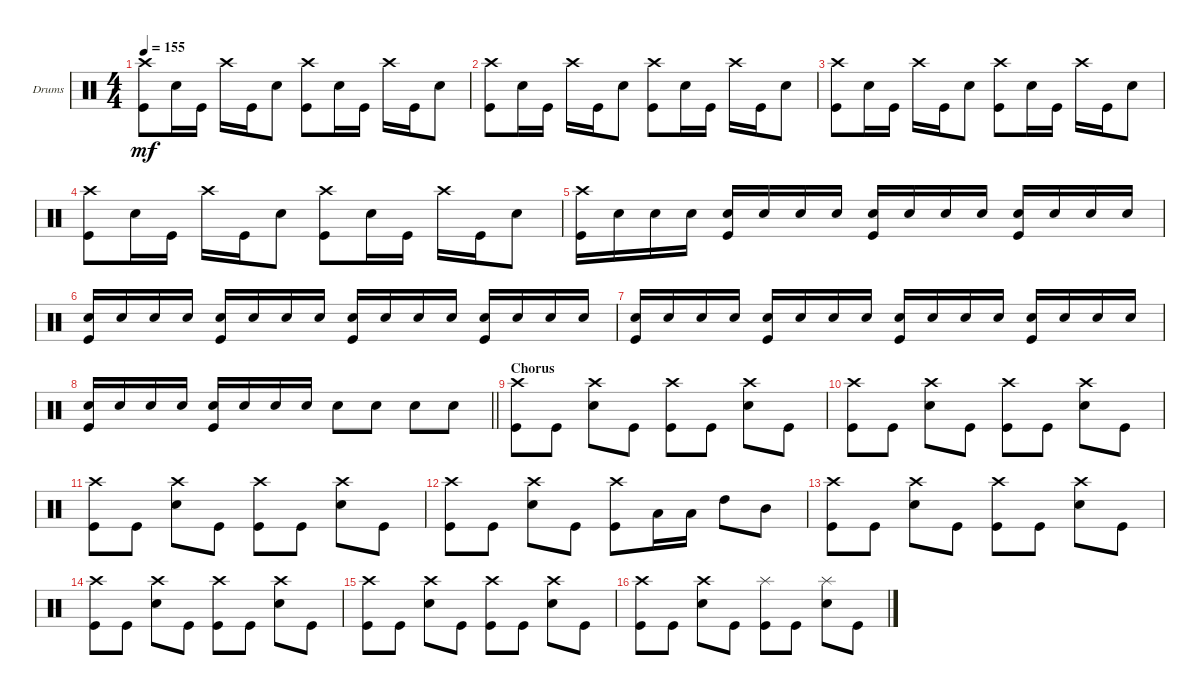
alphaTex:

\defaultSystemsLayout 4
\bracketExtendMode groupsimilarinstruments
\firstSystemTrackNameOrientation horizontal
\otherSystemsTrackNameOrientation horizontal
\track ("Drums" "Drums") {instrument percussion}
\staff {score}
\articulation defaults
\ts (4 4)
\tempo 155
\clef neutral
\ks c
("Kick (hit)" "Crash high (hit)").8{dy mf} "Snare (hit) 2".16 "Kick (hit)".16 "Crash high (hit)".16 "Kick (hit)".16 "Snare (hit) 2".8 ("Kick (hit)" "Crash high (hit)").8 "Snare (hit) 2".16 "Kick (hit)".16 "Crash high (hit)".16 "Kick (hit)".16 "Snare (hit) 2".8 |
("Kick (hit)" "Crash high (hit)").8 "Snare (hit) 2".16 "Kick (hit)".16 "Crash high (hit)".16 "Kick (hit)".16 "Snare (hit) 2".8 ("Kick (hit)" "Crash high (hit)").8 "Snare (hit) 2".16 "Kick (hit)".16 "Crash high (hit)".16 "Kick (hit)".16 "Snare (hit) 2".8 |
("Kick (hit)" "Crash high (hit)").8 "Snare (hit) 2".16 "Kick (hit)".16 "Crash high (hit)".16 "Kick (hit)".16 "Snare (hit) 2".8 ("Kick (hit)" "Crash high (hit)").8 "Snare (hit) 2".16 "Kick (hit)".16 "Crash high (hit)".16 "Kick (hit)".16 "Snare (hit) 2".8 |
("Kick (hit)" "Crash high (hit)").8 "Snare (hit) 2".16 "Kick (hit)".16 "Crash high (hit)".16 "Kick (hit)".16 "Snare (hit) 2".8 ("Kick (hit)" "Crash high (hit)").8 "Snare (hit) 2".16 "Kick (hit)".16 "Crash high (hit)".16 "Kick (hit)".16 "Snare (hit) 2".8 |
("Kick (hit)" "Crash high (hit)").16 "Snare (hit) 2".16 "Snare (hit) 2".16 "Snare (hit) 2".16 ("Kick (hit)" "Snare (hit) 2").16 "Snare (hit) 2".16 "Snare (hit) 2".16 "Snare (hit) 2".16 ("Kick (hit)" "Snare (hit) 2").16 "Snare (hit) 2".16 "Snare (hit) 2".16 "Snare (hit) 2".16 ("Kick (hit)" "Snare (hit) 2").16 "Snare (hit) 2".16 "Snare (hit) 2".16 "Snare (hit) 2".16 |
("Kick (hit)" "Snare (hit) 2").16 "Snare (hit) 2".16 "Snare (hit) 2".16 "Snare (hit) 2".16 ("Kick (hit)" "Snare (hit) 2").16 "Snare (hit) 2".16 "Snare (hit) 2".16 "Snare (hit) 2".16 ("Kick (hit)" "Snare (hit) 2").16 "Snare (hit) 2".16 "Snare (hit) 2".16 "Snare (hit) 2".16 ("Kick (hit)" "Snare (hit) 2").16 "Snare (hit) 2".16 "Snare (hit) 2".16 "Snare (hit) 2".16 |
("Kick (hit)" "Snare (hit) 2").16 "Snare (hit) 2".16 "Snare (hit) 2".16 "Snare (hit) 2".16 ("Kick (hit)" "Snare (hit) 2").16 "Snare (hit) 2".16 "Snare (hit) 2".16 "Snare (hit) 2".16 ("Kick (hit)" "Snare (hit) 2").16 "Snare (hit) 2".16 "Snare (hit) 2".16 "Snare (hit) 2".16 ("Kick (hit)" "Snare (hit) 2").16 "Snare (hit) 2".16 "Snare (hit) 2".16 "Snare (hit) 2".16 |
\barLineRight lightlight
("Kick (hit)" "Snare (hit) 2").16 "Snare (hit) 2".16 "Snare (hit) 2".16 "Snare (hit) 2".16 ("Kick (hit)" "Snare (hit) 2").16 "Snare (hit) 2".16 "Snare (hit) 2".16 "Snare (hit) 2".16 "Snare (hit) 2".8 "Snare (hit) 2".8 "Snare (hit) 2".8 "Snare (hit) 2".8 |
\section ("" "Chorus")
("Kick (hit)" "Crash high (hit)").8 "Kick (hit)".8 ("Snare (hit) 2" "Crash high (hit)").8 "Kick (hit)".8 ("Kick (hit)" "Crash high (hit)").8 "Kick (hit)".8 ("Snare (hit) 2" "Crash high (hit)").8 "Kick (hit)".8 |
("Kick (hit)" "Crash high (hit)").8 "Kick (hit)".8 ("Snare (hit) 2" "Crash high (hit)").8 "Kick (hit)".8 ("Kick (hit)" "Crash high (hit)").8 "Kick (hit)".8 ("Snare (hit) 2" "Crash high (hit)").8 "Kick (hit)".8 |
("Kick (hit)" "Crash high (hit)").8 "Kick (hit)".8 ("Snare (hit) 2" "Crash high (hit)").8 "Kick (hit)".8 ("Kick (hit)" "Crash high (hit)").8 "Kick (hit)".8 ("Snare (hit) 2" "Crash high (hit)").8 "Kick (hit)".8 |
("Kick (hit)" "Crash high (hit)").8 "Kick (hit)".8 ("Snare (hit) 2" "Crash high (hit)").8 "Kick (hit)".8 ("Kick (hit)" "Crash high (hit)").8 "Low Tom (hit)".16 "Low Tom (hit)".16 "High Tom (hit)".8 "Mid Tom (hit)".8 |
("Kick (hit)" "Crash high (hit)").8 "Kick (hit)".8 ("Snare (hit) 2" "Crash high (hit)").8 "Kick (hit)".8 ("Kick (hit)" "Crash high (hit)").8 "Kick (hit)".8 ("Snare (hit) 2" "Crash high (hit)").8 "Kick (hit)".8 |
("Kick (hit)" "Crash high (hit)").8 "Kick (hit)".8 ("Snare (hit) 2" "Crash high (hit)").8 "Kick (hit)".8 ("Kick (hit)" "Crash high (hit)").8 "Kick (hit)".8 ("Snare (hit) 2" "Crash high (hit)").8 "Kick (hit)".8 |
("Kick (hit)" "Crash high (hit)").8 "Kick (hit)".8 ("Snare (hit) 2" "Crash high (hit)").8 "Kick (hit)".8 ("Kick (hit)" "Crash high (hit)").8 "Kick (hit)".8 ("Snare (hit) 2" "Crash high (hit)").8 "Kick (hit)".8 |
("Kick (hit)" "Crash high (hit)").8 "Kick (hit)".8 ("Snare (hit) 2" "Crash high (hit)").8 "Kick (hit)".8 ("Kick (hit)" "Splash (hit)").8 "Kick (hit)".8 ("Snare (hit) 2" "Splash (hit)").8 "Kick (hit)".8
